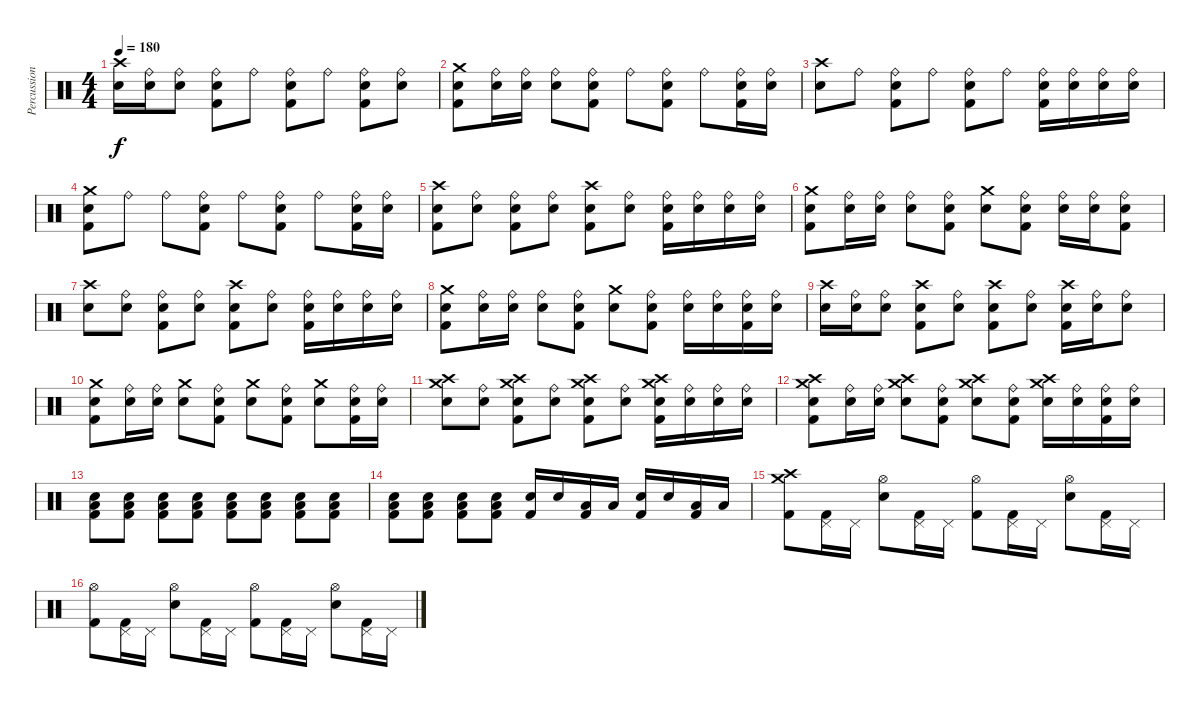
\track ("Percussion" "Percussion") {instrument percussion}
\staff {score}
\articulation defaults
\ts (4 4)
\tempo 180
\clef neutral
\ks c
("Crash high (hit)" "Electric Snare (hit)").16{dy f} ("Ride (bell)" "Electric Snare (hit)").16 ("Ride (bell)" "Electric Snare (hit)").8 ("Ride (bell)" "Electric Snare (hit)" "Kick (hit) 2").8 "Ride (bell)".8 ("Ride (bell)" "Electric Snare (hit)" "Kick (hit) 2").8 "Ride (bell)".8 ("Ride (bell)" "Electric Snare (hit)" "Kick (hit) 2").8 ("Ride (bell)" "Electric Snare (hit)").8 |
("Crash medium (hit)" "Electric Snare (hit)" "Kick (hit) 2").8 ("Ride (bell)" "Electric Snare (hit)").16 ("Ride (bell)" "Electric Snare (hit)").16 ("Ride (bell)" "Electric Snare (hit)").8 ("Ride (bell)" "Electric Snare (hit)" "Kick (hit) 2").8 "Ride (bell)".8 ("Ride (bell)" "Electric Snare (hit)" "Kick (hit) 2").8 "Ride (bell)".8 ("Ride (bell)" "Electric Snare (hit)" "Kick (hit) 2").16 ("Ride (bell)" "Electric Snare (hit)").16 |
("Crash high (hit)" "Electric Snare (hit)").8 "Ride (bell)".8 ("Ride (bell)" "Electric Snare (hit)" "Kick (hit) 2").8 "Ride (bell)".8 ("Ride (bell)" "Electric Snare (hit)" "Kick (hit) 2").8 "Ride (bell)".8 ("Ride (bell)" "Electric Snare (hit)" "Kick (hit) 2").16 ("Ride (bell)" "Electric Snare (hit)").16 ("Ride (bell)" "Electric Snare (hit)").16 ("Ride (bell)" "Electric Snare (hit)").16 |
("Crash medium (hit)" "Electric Snare (hit)" "Kick (hit) 2").8 "Ride (bell)".8 "Ride (bell)".8 ("Ride (bell)" "Electric Snare (hit)" "Kick (hit) 2").8 "Ride (bell)".8 ("Ride (bell)" "Electric Snare (hit)" "Kick (hit) 2").8 "Ride (bell)".8 ("Ride (bell)" "Electric Snare (hit)" "Kick (hit) 2").16 ("Ride (bell)" "Electric Snare (hit)").16 |
("Crash high (hit)" "Electric Snare (hit)" "Kick (hit) 2").8 ("Ride (bell)" "Electric Snare (hit)").8 ("Ride (bell)" "Electric Snare (hit)" "Kick (hit) 2").8 ("Ride (bell)" "Electric Snare (hit)").8 ("Crash high (hit)" "Electric Snare (hit)" "Kick (hit) 2").8 ("Ride (bell)" "Electric Snare (hit)").8 ("Ride (bell)" "Electric Snare (hit)" "Kick (hit) 2").16 ("Ride (bell)" "Electric Snare (hit)").16 ("Ride (bell)" "Electric Snare (hit)").16 ("Ride (bell)" "Electric Snare (hit)").16 |
("Crash medium (hit)" "Electric Snare (hit)" "Kick (hit) 2").8 ("Ride (bell)" "Electric Snare (hit)").16 ("Ride (bell)" "Electric Snare (hit)").16 ("Ride (bell)" "Electric Snare (hit)").8 ("Ride (bell)" "Electric Snare (hit)" "Kick (hit) 2").8 ("Crash medium (hit)" "Electric Snare (hit)").8 ("Ride (bell)" "Electric Snare (hit)" "Kick (hit) 2").8 ("Ride (bell)" "Electric Snare (hit)").16 ("Ride (bell)" "Electric Snare (hit)").16 ("Ride (bell)" "Electric Snare (hit)" "Kick (hit) 2").8 |
("Crash high (hit)" "Electric Snare (hit)").8 ("Ride (bell)" "Electric Snare (hit)").8 ("Ride (bell)" "Electric Snare (hit)" "Kick (hit) 2").8 ("Ride (bell)" "Electric Snare (hit)").8 ("Crash high (hit)" "Electric Snare (hit)" "Kick (hit) 2").8 ("Ride (bell)" "Electric Snare (hit)").8 ("Ride (bell)" "Electric Snare (hit)" "Kick (hit) 2").16 ("Ride (bell)" "Electric Snare (hit)").16 ("Ride (bell)" "Electric Snare (hit)").16 ("Ride (bell)" "Electric Snare (hit)").16 |
("Crash medium (hit)" "Electric Snare (hit)" "Kick (hit) 2").8 ("Ride (bell)" "Electric Snare (hit)").16 ("Ride (bell)" "Electric Snare (hit)").16 ("Ride (bell)" "Electric Snare (hit)").8 ("Ride (bell)" "Electric Snare (hit)" "Kick (hit) 2").8 ("Crash medium (hit)" "Electric Snare (hit)").8 ("Ride (bell)" "Electric Snare (hit)" "Kick (hit) 2").8 ("Ride (bell)" "Electric Snare (hit)").16 ("Ride (bell)" "Electric Snare (hit)").16 ("Ride (bell)" "Electric Snare (hit)" "Kick (hit) 2").16 ("Ride (bell)" "Electric Snare (hit)").16 |
("Crash high (hit)" "Electric Snare (hit)").16 ("Ride (bell)" "Electric Snare (hit)").16 ("Ride (bell)" "Electric Snare (hit)").8 ("Crash high (hit)" "Electric Snare (hit)" "Kick (hit) 2").8 ("Ride (bell)" "Electric Snare (hit)").8 ("Crash high (hit)" "Electric Snare (hit)" "Kick (hit) 2").8 ("Ride (bell)" "Electric Snare (hit)").8 ("Crash high (hit)" "Electric Snare (hit)" "Kick (hit) 2").16 ("Ride (bell)" "Electric Snare (hit)").16 ("Ride (bell)" "Electric Snare (hit)").8 |
("Crash medium (hit)" "Electric Snare (hit)" "Kick (hit) 2").8 ("Ride (bell)" "Electric Snare (hit)").16 ("Ride (bell)" "Electric Snare (hit)").16 ("Crash medium (hit)" "Electric Snare (hit)").8 ("Ride (bell)" "Electric Snare (hit)" "Kick (hit) 2").8 ("Crash medium (hit)" "Electric Snare (hit)").8 ("Ride (bell)" "Electric Snare (hit)" "Kick (hit) 2").8 ("Crash medium (hit)" "Electric Snare (hit)").8 ("Ride (bell)" "Electric Snare (hit)" "Kick (hit) 2").16 ("Ride (bell)" "Electric Snare (hit)").16 |
("Crash high (hit)" "Crash medium (hit)" "Electric Snare (hit)").8 ("Ride (bell)" "Electric Snare (hit)").8 ("Crash medium (hit)" "Crash high (hit)" "Electric Snare (hit)" "Kick (hit) 2").8 ("Ride (bell)" "Electric Snare (hit)").8 ("Crash medium (hit)" "Crash high (hit)" "Electric Snare (hit)" "Kick (hit) 2").8 ("Ride (bell)" "Electric Snare (hit)").8 ("Crash medium (hit)" "Crash high (hit)" "Electric Snare (hit)" "Kick (hit) 2").16 ("Ride (bell)" "Electric Snare (hit)").16 ("Ride (bell)" "Electric Snare (hit)").16 ("Ride (bell)" "Electric Snare (hit)").16 |
("Crash high (hit)" "Crash medium (hit)" "Electric Snare (hit)" "Kick (hit) 2").8 ("Ride (bell)" "Electric Snare (hit)").16 ("Ride (bell)" "Electric Snare (hit)").16 ("Crash medium (hit)" "Crash high (hit)" "Electric Snare (hit)").8 ("Ride (bell)" "Electric Snare (hit)" "Kick (hit) 2").8 ("Crash medium (hit)" "Crash high (hit)" "Electric Snare (hit)").8 ("Ride (bell)" "Electric Snare (hit)" "Kick (hit) 2").8 ("Crash medium (hit)" "Crash high (hit)" "Electric Snare (hit)").16 ("Ride (bell)" "Electric Snare (hit)").16 ("Ride (bell)" "Electric Snare (hit)" "Kick (hit) 2").16 ("Ride (bell)" "Electric Snare (hit)").16 |
("Electric Snare (hit)" "Low Floor Tom (hit)" "Kick (hit) 2").8 ("Electric Snare (hit)" "Low Floor Tom (hit)" "Kick (hit) 2").8 ("Electric Snare (hit)" "Low Floor Tom (hit)" "Kick (hit) 2").8 ("Electric Snare (hit)" "Low Floor Tom (hit)" "Kick (hit) 2").8 ("Electric Snare (hit)" "Low Floor Tom (hit)" "Kick (hit) 2").8 ("Electric Snare (hit)" "Low Floor Tom (hit)" "Kick (hit) 2").8 ("Electric Snare (hit)" "Low Floor Tom (hit)" "Kick (hit) 2").8 ("Electric Snare (hit)" "Low Floor Tom (hit)" "Kick (hit) 2").8 |
("Electric Snare (hit)" "Low Floor Tom (hit)" "Kick (hit) 2").8 ("Electric Snare (hit)" "Low Floor Tom (hit)" "Kick (hit) 2").8 ("Electric Snare (hit)" "Low Floor Tom (hit)" "Kick (hit) 2").8 ("Electric Snare (hit)" "Low Floor Tom (hit)" "Kick (hit) 2").8 ("Electric Snare (hit)" "Kick (hit) 2").16 "Electric Snare (hit)".16 ("Low Floor Tom (hit)" "Kick (hit) 2").16 "Low Floor Tom (hit)".16 ("Electric Snare (hit)" "Kick (hit) 2").16 "Electric Snare (hit)".16 ("Low Floor Tom (hit)" "Kick (hit) 2").16 "Low Floor Tom (hit)".16 |
("Crash medium (hit)" "Crash high (hit)" "Kick (hit) 2").8 ("Pedal Hi-Hat (hit)" "Kick (hit) 2").16 "Pedal Hi-Hat (hit)".16 ("Hi-Hat (open)" "Electric Snare (hit)").8 ("Pedal Hi-Hat (hit)" "Kick (hit) 2").16 "Pedal Hi-Hat (hit)".16 ("Hi-Hat (open)" "Kick (hit) 2").8 ("Pedal Hi-Hat (hit)" "Kick (hit) 2").16 "Pedal Hi-Hat (hit)".16 ("Hi-Hat (open)" "Electric Snare (hit)").8 ("Pedal Hi-Hat (hit)" "Kick (hit) 2").16 "Pedal Hi-Hat (hit)".16 |
("Hi-Hat (open)" "Kick (hit) 2").8 ("Pedal Hi-Hat (hit)" "Kick (hit) 2").16 "Pedal Hi-Hat (hit)".16 ("Hi-Hat (open)" "Electric Snare (hit)").8 ("Pedal Hi-Hat (hit)" "Kick (hit) 2").16 "Pedal Hi-Hat (hit)".16 ("Hi-Hat (open)" "Kick (hit) 2").8 ("Pedal Hi-Hat (hit)" "Kick (hit) 2").16 "Pedal Hi-Hat (hit)".16 ("Hi-Hat (open)" "Electric Snare (hit)").8 ("Pedal Hi-Hat (hit)" "Kick (hit) 2").16 "Pedal Hi-Hat (hit)".16
